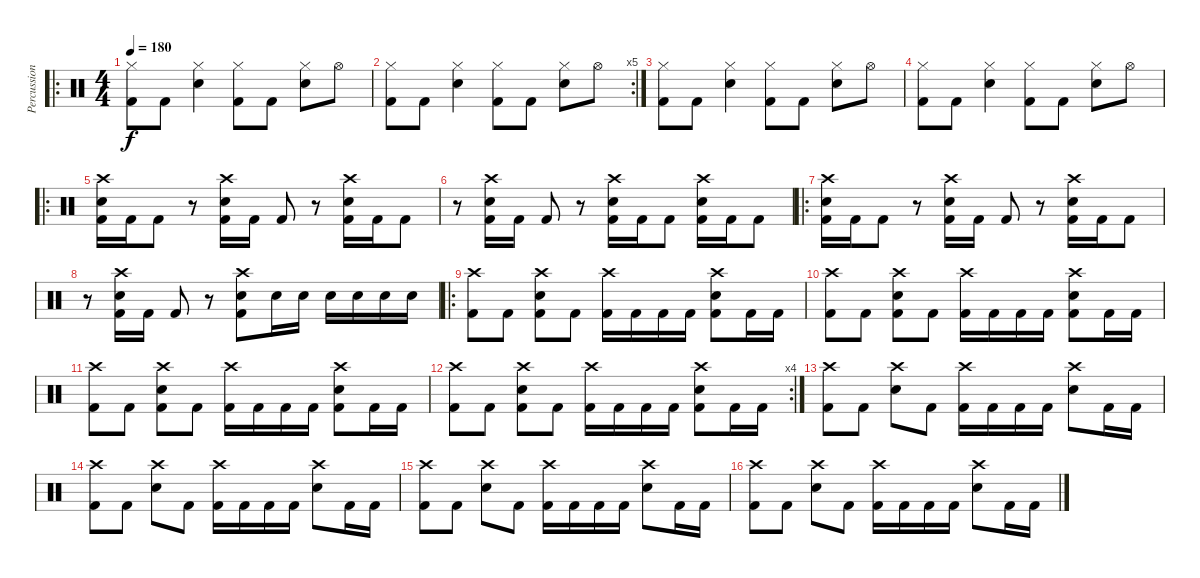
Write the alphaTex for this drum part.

\track ("Percussion" "Percussion") {instrument percussion}
\staff {score}
\articulation defaults
\ro
\ts (4 4)
\tempo 180
\clef neutral
\ks c
("Hi-Hat (closed)" "Kick (hit) 2").8{dy f} "Kick (hit) 2".8 ("Hi-Hat (closed)" "Electric Snare (hit)").4 ("Hi-Hat (closed)" "Kick (hit) 2").8 "Kick (hit) 2".8 ("Hi-Hat (closed)" "Electric Snare (hit)").8 "Hi-Hat (open)".8 |
\rc 5
("Hi-Hat (closed)" "Kick (hit) 2").8 "Kick (hit) 2".8 ("Hi-Hat (closed)" "Electric Snare (hit)").4 ("Hi-Hat (closed)" "Kick (hit) 2").8 "Kick (hit) 2".8 ("Hi-Hat (closed)" "Electric Snare (hit)").8 "Hi-Hat (open)".8 |
("Hi-Hat (closed)" "Kick (hit) 2").8 "Kick (hit) 2".8 ("Hi-Hat (closed)" "Electric Snare (hit)").4 ("Hi-Hat (closed)" "Kick (hit) 2").8 "Kick (hit) 2".8 ("Hi-Hat (closed)" "Electric Snare (hit)").8 "Hi-Hat (open)".8 |
("Hi-Hat (closed)" "Kick (hit) 2").8 "Kick (hit) 2".8 ("Hi-Hat (closed)" "Electric Snare (hit)").4 ("Hi-Hat (closed)" "Kick (hit) 2").8 "Kick (hit) 2".8 ("Hi-Hat (closed)" "Electric Snare (hit)").8 "Hi-Hat (open)".8 |
\ro
("Crash high (hit)" "Electric Snare (hit)" "Kick (hit) 2").16 "Kick (hit) 2".16 "Kick (hit) 2".8 r.8 ("Crash high (hit)" "Electric Snare (hit)" "Kick (hit) 2").16 "Kick (hit) 2".16 "Kick (hit) 2".8 r.8 ("Crash high (hit)" "Electric Snare (hit)" "Kick (hit) 2").16 "Kick (hit) 2".16 "Kick (hit) 2".8 |
r.8 ("Crash high (hit)" "Electric Snare (hit)" "Kick (hit) 2").16 "Kick (hit) 2".16 "Kick (hit) 2".8 r.8 ("Crash high (hit)" "Electric Snare (hit)" "Kick (hit) 2").16 "Kick (hit) 2".16 "Kick (hit) 2".8 ("Crash high (hit)" "Electric Snare (hit)" "Kick (hit) 2").16 "Kick (hit) 2".16 "Kick (hit) 2".8 |
\ro
("Crash high (hit)" "Electric Snare (hit)" "Kick (hit) 2").16 "Kick (hit) 2".16 "Kick (hit) 2".8 r.8 ("Crash high (hit)" "Electric Snare (hit)" "Kick (hit) 2").16 "Kick (hit) 2".16 "Kick (hit) 2".8 r.8 ("Crash high (hit)" "Electric Snare (hit)" "Kick (hit) 2").16 "Kick (hit) 2".16 "Kick (hit) 2".8 |
r.8 ("Crash high (hit)" "Electric Snare (hit)" "Kick (hit) 2").16 "Kick (hit) 2".16 "Kick (hit) 2".8 r.8 ("Crash high (hit)" "Electric Snare (hit)" "Kick (hit) 2").8 "Electric Snare (hit)".16 "Electric Snare (hit)".16 "Electric Snare (hit)".16 "Electric Snare (hit)".16 "Electric Snare (hit)".16 "Electric Snare (hit)".16 |
\ro
("Crash high (hit)" "Kick (hit) 2").8 "Kick (hit) 2".8 ("Crash high (hit)" "Electric Snare (hit)" "Kick (hit) 2").8 "Kick (hit) 2".8 ("Crash high (hit)" "Kick (hit) 2").16 "Kick (hit) 2".16 "Kick (hit) 2".16 "Kick (hit) 2".16 ("Crash high (hit)" "Electric Snare (hit)" "Kick (hit) 2").8 "Kick (hit) 2".16 "Kick (hit) 2".16 |
("Crash high (hit)" "Kick (hit) 2").8 "Kick (hit) 2".8 ("Crash high (hit)" "Electric Snare (hit)" "Kick (hit) 2").8 "Kick (hit) 2".8 ("Crash high (hit)" "Kick (hit) 2").16 "Kick (hit) 2".16 "Kick (hit) 2".16 "Kick (hit) 2".16 ("Crash high (hit)" "Electric Snare (hit)" "Kick (hit) 2").8 "Kick (hit) 2".16 "Kick (hit) 2".16 |
("Crash high (hit)" "Kick (hit) 2").8 "Kick (hit) 2".8 ("Crash high (hit)" "Electric Snare (hit)" "Kick (hit) 2").8 "Kick (hit) 2".8 ("Crash high (hit)" "Kick (hit) 2").16 "Kick (hit) 2".16 "Kick (hit) 2".16 "Kick (hit) 2".16 ("Crash high (hit)" "Electric Snare (hit)" "Kick (hit) 2").8 "Kick (hit) 2".16 "Kick (hit) 2".16 |
\rc 4
("Crash high (hit)" "Kick (hit) 2").8 "Kick (hit) 2".8 ("Crash high (hit)" "Electric Snare (hit)" "Kick (hit) 2").8 "Kick (hit) 2".8 ("Crash high (hit)" "Kick (hit) 2").16 "Kick (hit) 2".16 "Kick (hit) 2".16 "Kick (hit) 2".16 ("Crash high (hit)" "Electric Snare (hit)" "Kick (hit) 2").8 "Kick (hit) 2".16 "Kick (hit) 2".16 |
("Crash high (hit)" "Kick (hit) 2").8 "Kick (hit) 2".8 ("Crash high (hit)" "Electric Snare (hit)").8 "Kick (hit) 2".8 ("Crash high (hit)" "Kick (hit) 2").16 "Kick (hit) 2".16 "Kick (hit) 2".16 "Kick (hit) 2".16 ("Crash high (hit)" "Electric Snare (hit)").8 "Kick (hit) 2".16 "Kick (hit) 2".16 |
("Crash high (hit)" "Kick (hit) 2").8 "Kick (hit) 2".8 ("Crash high (hit)" "Electric Snare (hit)").8 "Kick (hit) 2".8 ("Crash high (hit)" "Kick (hit) 2").16 "Kick (hit) 2".16 "Kick (hit) 2".16 "Kick (hit) 2".16 ("Crash high (hit)" "Electric Snare (hit)").8 "Kick (hit) 2".16 "Kick (hit) 2".16 |
("Crash high (hit)" "Kick (hit) 2").8 "Kick (hit) 2".8 ("Crash high (hit)" "Electric Snare (hit)").8 "Kick (hit) 2".8 ("Crash high (hit)" "Kick (hit) 2").16 "Kick (hit) 2".16 "Kick (hit) 2".16 "Kick (hit) 2".16 ("Crash high (hit)" "Electric Snare (hit)").8 "Kick (hit) 2".16 "Kick (hit) 2".16 |
("Crash high (hit)" "Kick (hit) 2").8 "Kick (hit) 2".8 ("Crash high (hit)" "Electric Snare (hit)").8 "Kick (hit) 2".8 ("Crash high (hit)" "Kick (hit) 2").16 "Kick (hit) 2".16 "Kick (hit) 2".16 "Kick (hit) 2".16 ("Crash high (hit)" "Electric Snare (hit)").8 "Kick (hit) 2".16 "Kick (hit) 2".16
